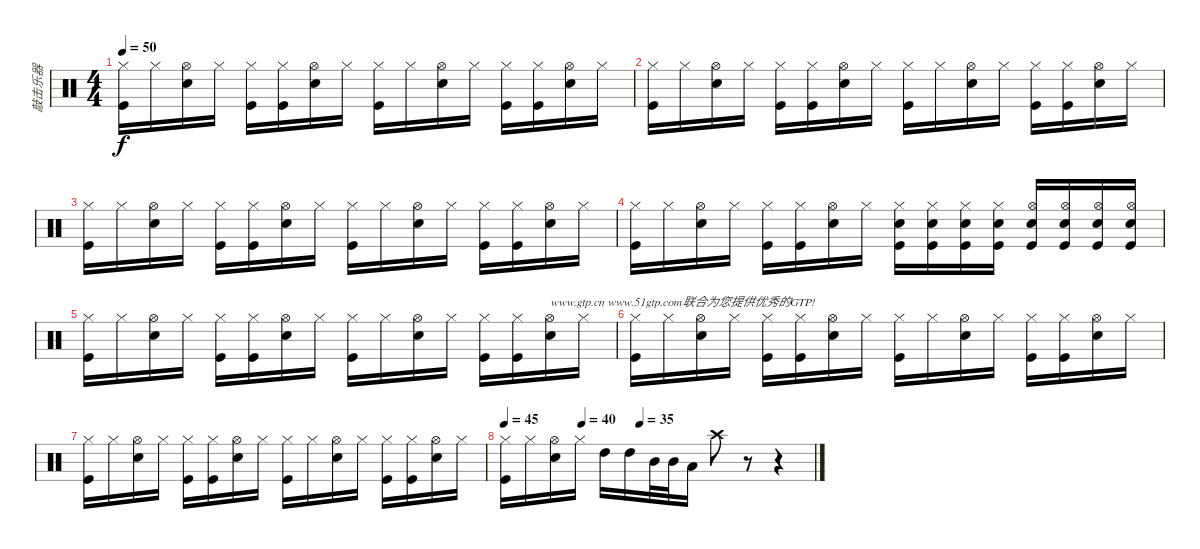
\track ("敲击乐器" "敲击乐器") {instrument percussion}
\staff {score}
\articulation defaults
\ts (4 4)
\tempo 50
\clef neutral
\ks c
("Hi-Hat (closed)" "Kick (hit)").16{dy f} "Hi-Hat (closed)".16 ("Hi-Hat (open)" "Snare (hit) 2").16 "Hi-Hat (closed)".16 ("Hi-Hat (closed)" "Kick (hit)").16 ("Hi-Hat (closed)" "Kick (hit)").16 ("Hi-Hat (open)" "Snare (hit) 2").16 "Hi-Hat (closed)".16 ("Hi-Hat (closed)" "Kick (hit)").16 "Hi-Hat (closed)".16 ("Hi-Hat (open)" "Snare (hit) 2").16 "Hi-Hat (closed)".16 ("Hi-Hat (closed)" "Kick (hit)").16 ("Hi-Hat (closed)" "Kick (hit)").16 ("Hi-Hat (open)" "Snare (hit) 2").16 "Hi-Hat (closed)".16 |
("Hi-Hat (closed)" "Kick (hit)").16 "Hi-Hat (closed)".16 ("Hi-Hat (open)" "Snare (hit) 2").16 "Hi-Hat (closed)".16 ("Hi-Hat (closed)" "Kick (hit)").16 ("Hi-Hat (closed)" "Kick (hit)").16 ("Hi-Hat (open)" "Snare (hit) 2").16 "Hi-Hat (closed)".16 ("Hi-Hat (closed)" "Kick (hit)").16 "Hi-Hat (closed)".16 ("Hi-Hat (open)" "Snare (hit) 2").16 "Hi-Hat (closed)".16 ("Hi-Hat (closed)" "Kick (hit)").16 ("Hi-Hat (closed)" "Kick (hit)").16 ("Hi-Hat (open)" "Snare (hit) 2").16 "Hi-Hat (closed)".16 |
("Hi-Hat (closed)" "Kick (hit)").16 "Hi-Hat (closed)".16 ("Hi-Hat (open)" "Snare (hit) 2").16 "Hi-Hat (closed)".16 ("Hi-Hat (closed)" "Kick (hit)").16 ("Hi-Hat (closed)" "Kick (hit)").16 ("Hi-Hat (open)" "Snare (hit) 2").16 "Hi-Hat (closed)".16 ("Hi-Hat (closed)" "Kick (hit)").16 "Hi-Hat (closed)".16 ("Hi-Hat (open)" "Snare (hit) 2").16 "Hi-Hat (closed)".16 ("Hi-Hat (closed)" "Kick (hit)").16 ("Hi-Hat (closed)" "Kick (hit)").16 ("Hi-Hat (open)" "Snare (hit) 2").16 "Hi-Hat (closed)".16 |
("Hi-Hat (closed)" "Kick (hit)").16 "Hi-Hat (closed)".16 ("Hi-Hat (open)" "Snare (hit) 2").16 "Hi-Hat (closed)".16 ("Hi-Hat (closed)" "Kick (hit)").16 ("Hi-Hat (closed)" "Kick (hit)").16 ("Hi-Hat (open)" "Snare (hit) 2").16 "Hi-Hat (closed)".16 ("Hi-Hat (closed)" "Snare (hit) 2" "Kick (hit)").16 ("Hi-Hat (closed)" "Snare (hit) 2" "Kick (hit)").16 ("Hi-Hat (closed)" "Snare (hit) 2" "Kick (hit)").16 ("Hi-Hat (closed)" "Snare (hit) 2" "Kick (hit)").16 ("Hi-Hat (open)" "Snare (hit) 2" "Kick (hit)").16 ("Hi-Hat (open)" "Snare (hit) 2" "Kick (hit)").16 ("Hi-Hat (open)" "Snare (hit) 2" "Kick (hit)").16 ("Hi-Hat (open)" "Snare (hit) 2" "Kick (hit)").16 |
("Hi-Hat (closed)" "Kick (hit)").16 "Hi-Hat (closed)".16 ("Hi-Hat (open)" "Snare (hit) 2").16 "Hi-Hat (closed)".16 ("Hi-Hat (closed)" "Kick (hit)").16 ("Hi-Hat (closed)" "Kick (hit)").16 ("Hi-Hat (open)" "Snare (hit) 2").16 "Hi-Hat (closed)".16 ("Hi-Hat (closed)" "Kick (hit)").16 "Hi-Hat (closed)".16 ("Hi-Hat (open)" "Snare (hit) 2").16 "Hi-Hat (closed)".16 ("Hi-Hat (closed)" "Kick (hit)").16 ("Hi-Hat (closed)" "Kick (hit)").16 ("Hi-Hat (open)" "Snare (hit) 2").16{txt "www.gtp.cn www.51gtp.com联合为您提供优秀的GTP!"} "Hi-Hat (closed)".16 |
("Hi-Hat (closed)" "Kick (hit)").16 "Hi-Hat (closed)".16 ("Hi-Hat (open)" "Snare (hit) 2").16 "Hi-Hat (closed)".16 ("Hi-Hat (closed)" "Kick (hit)").16 ("Hi-Hat (closed)" "Kick (hit)").16 ("Hi-Hat (open)" "Snare (hit) 2").16 "Hi-Hat (closed)".16 ("Hi-Hat (closed)" "Kick (hit)").16 "Hi-Hat (closed)".16 ("Hi-Hat (open)" "Snare (hit) 2").16 "Hi-Hat (closed)".16 ("Hi-Hat (closed)" "Kick (hit)").16 ("Hi-Hat (closed)" "Kick (hit)").16 ("Hi-Hat (open)" "Snare (hit) 2").16 "Hi-Hat (closed)".16 |
("Hi-Hat (closed)" "Kick (hit)").16 "Hi-Hat (closed)".16 ("Hi-Hat (open)" "Snare (hit) 2").16 "Hi-Hat (closed)".16 ("Hi-Hat (closed)" "Kick (hit)").16 ("Hi-Hat (closed)" "Kick (hit)").16 ("Hi-Hat (open)" "Snare (hit) 2").16 "Hi-Hat (closed)".16 ("Hi-Hat (closed)" "Kick (hit)").16 "Hi-Hat (closed)".16 ("Hi-Hat (open)" "Snare (hit) 2").16 "Hi-Hat (closed)".16 ("Hi-Hat (closed)" "Kick (hit)").16 ("Hi-Hat (closed)" "Kick (hit)").16 ("Hi-Hat (open)" "Snare (hit) 2").16 "Hi-Hat (closed)".16 |
\tempo 45
\tempo (40 0.25)
\tempo (35 0.4375)
("Hi-Hat (closed)" "Kick (hit)").16 "Hi-Hat (closed)".16 ("Hi-Hat (open)" "Snare (hit) 2").16 "Hi-Hat (closed)".16 "High Tom (hit)".16 "High Tom (hit)".16 "Mid Tom (hit)".32 "Mid Tom (hit)".32 "Low Tom (hit)".16 "Crash high (hit)".8 r.8 r.4
